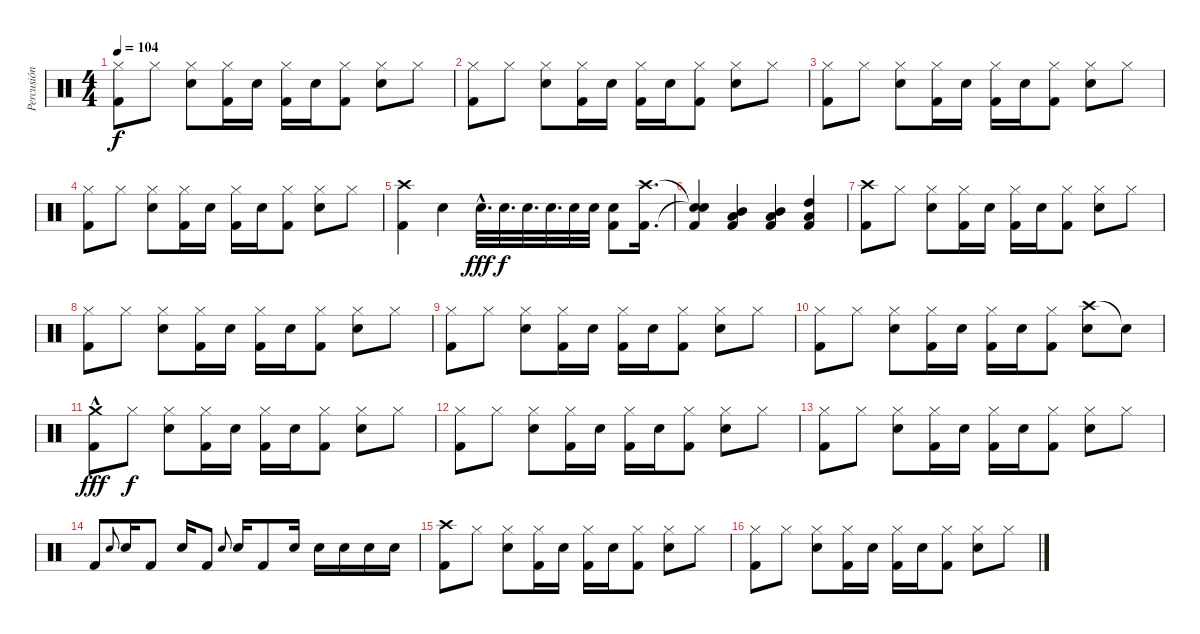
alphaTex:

\track ("Percusión" "Percusión") {instrument percussion}
\staff {score}
\articulation defaults
\ts (4 4)
\tempo 104
\clef neutral
\ks c
("Hi-Hat (closed)" "Kick (hit) 2").8{dy f} "Hi-Hat (closed)".8 ("Hi-Hat (closed)" "Snare (hit) 2").8 ("Hi-Hat (closed)" "Kick (hit) 2").16 "Snare (hit) 2".16 ("Hi-Hat (closed)" "Kick (hit) 2").16 "Snare (hit) 2".16 ("Hi-Hat (closed)" "Kick (hit) 2").8 ("Hi-Hat (closed)" "Snare (hit) 2").8 "Hi-Hat (closed)".8 |
("Hi-Hat (closed)" "Kick (hit) 2").8 "Hi-Hat (closed)".8 ("Hi-Hat (closed)" "Snare (hit) 2").8 ("Hi-Hat (closed)" "Kick (hit) 2").16 "Snare (hit) 2".16 ("Hi-Hat (closed)" "Kick (hit) 2").16 "Snare (hit) 2".16 ("Hi-Hat (closed)" "Kick (hit) 2").8 ("Hi-Hat (closed)" "Snare (hit) 2").8 "Hi-Hat (closed)".8 |
("Hi-Hat (closed)" "Kick (hit) 2").8 "Hi-Hat (closed)".8 ("Hi-Hat (closed)" "Snare (hit) 2").8 ("Hi-Hat (closed)" "Kick (hit) 2").16 "Snare (hit) 2".16 ("Hi-Hat (closed)" "Kick (hit) 2").16 "Snare (hit) 2".16 ("Hi-Hat (closed)" "Kick (hit) 2").8 ("Hi-Hat (closed)" "Snare (hit) 2").8 "Hi-Hat (closed)".8 |
("Hi-Hat (closed)" "Kick (hit) 2").8 "Hi-Hat (closed)".8 ("Hi-Hat (closed)" "Snare (hit) 2").8 ("Hi-Hat (closed)" "Kick (hit) 2").16 "Snare (hit) 2".16 ("Hi-Hat (closed)" "Kick (hit) 2").16 "Snare (hit) 2".16 ("Hi-Hat (closed)" "Kick (hit) 2").8 ("Hi-Hat (closed)" "Snare (hit) 2").8 "Hi-Hat (closed)".8 |
("Crash high (hit)" "Kick (hit) 2").4 "Snare (hit) 2".4 "Snare (hit) 2"{hac}.32{d dy fff} "Snare (hit) 2".32{d dy f} "Snare (hit) 2".32{d} "Snare (hit) 2".32{d} "Snare (hit) 2".32 "Snare (hit) 2".32 ("Snare (hit) 2" "Kick (hit) 2").8 ("Crash high (hit)" "Kick (hit) 2").16{d} |
("Snare (hit)"{t} "Snare (hit)"{t} "Kick (hit) 2").4 ("Mid Tom (hit)" "Low Tom (hit)" "Kick (hit) 2").4 ("Mid Tom (hit)" "Low Tom (hit)" "Kick (hit) 2").4 ("High Tom (hit)" "Low Tom (hit)" "Kick (hit) 2").4 |
("Crash high (hit)" "Kick (hit) 2").8 "Hi-Hat (closed)".8 ("Hi-Hat (closed)" "Snare (hit) 2").8 ("Hi-Hat (closed)" "Kick (hit) 2").16 "Snare (hit) 2".16 ("Hi-Hat (closed)" "Kick (hit) 2").16 "Snare (hit) 2".16 ("Hi-Hat (closed)" "Kick (hit) 2").8 ("Hi-Hat (closed)" "Snare (hit) 2").8 "Hi-Hat (closed)".8 |
("Hi-Hat (closed)" "Kick (hit) 2").8 "Hi-Hat (closed)".8 ("Hi-Hat (closed)" "Snare (hit) 2").8 ("Hi-Hat (closed)" "Kick (hit) 2").16 "Snare (hit) 2".16 ("Hi-Hat (closed)" "Kick (hit) 2").16 "Snare (hit) 2".16 ("Hi-Hat (closed)" "Kick (hit) 2").8 ("Hi-Hat (closed)" "Snare (hit) 2").8 "Hi-Hat (closed)".8 |
("Hi-Hat (closed)" "Kick (hit) 2").8 "Hi-Hat (closed)".8 ("Hi-Hat (closed)" "Snare (hit) 2").8 ("Hi-Hat (closed)" "Kick (hit) 2").16 "Snare (hit) 2".16 ("Hi-Hat (closed)" "Kick (hit) 2").16 "Snare (hit) 2".16 ("Hi-Hat (closed)" "Kick (hit) 2").8 ("Hi-Hat (closed)" "Snare (hit) 2").8 "Hi-Hat (closed)".8 |
("Hi-Hat (closed)" "Kick (hit) 2").8 "Hi-Hat (closed)".8 ("Hi-Hat (closed)" "Snare (hit) 2").8 ("Hi-Hat (closed)" "Kick (hit) 2").16 "Snare (hit) 2".16 ("Hi-Hat (closed)" "Kick (hit) 2").16 "Snare (hit) 2".16 ("Hi-Hat (closed)" "Kick (hit) 2").8 ("Crash high (hit)" "Snare (hit) 2").8 "Snare (hit)"{t}.8 |
("Crash medium (hit)"{hac} "Kick (hit) 2").8{dy fff} "Hi-Hat (closed)".8{dy f} ("Hi-Hat (closed)" "Snare (hit) 2").8 ("Hi-Hat (closed)" "Kick (hit) 2").16 "Snare (hit) 2".16 ("Hi-Hat (closed)" "Kick (hit) 2").16 "Snare (hit) 2".16 ("Hi-Hat (closed)" "Kick (hit) 2").8 ("Hi-Hat (closed)" "Snare (hit) 2").8 "Hi-Hat (closed)".8 |
("Hi-Hat (closed)" "Kick (hit) 2").8 "Hi-Hat (closed)".8 ("Hi-Hat (closed)" "Snare (hit) 2").8 ("Hi-Hat (closed)" "Kick (hit) 2").16 "Snare (hit) 2".16 ("Hi-Hat (closed)" "Kick (hit) 2").16 "Snare (hit) 2".16 ("Hi-Hat (closed)" "Kick (hit) 2").8 ("Hi-Hat (closed)" "Snare (hit) 2").8 "Hi-Hat (closed)".8 |
("Hi-Hat (closed)" "Kick (hit) 2").8 "Hi-Hat (closed)".8 ("Hi-Hat (closed)" "Snare (hit) 2").8 ("Hi-Hat (closed)" "Kick (hit) 2").16 "Snare (hit) 2".16 ("Hi-Hat (closed)" "Kick (hit) 2").16 "Snare (hit) 2".16 ("Hi-Hat (closed)" "Kick (hit) 2").8 ("Hi-Hat (closed)" "Snare (hit) 2").8 "Hi-Hat (closed)".8 |
"Kick (hit) 2".8 "Snare (hit) 2".8{gr onbeat} "Snare (hit) 2".16 "Kick (hit) 2".8 "Snare (hit) 2".16 "Kick (hit) 2".8 "Snare (hit) 2".8{gr onbeat} "Snare (hit) 2".16 "Kick (hit) 2".8 "Snare (hit) 2".16 "Snare (hit) 2".16 "Snare (hit) 2".16 "Snare (hit) 2".16 "Snare (hit) 2".16 |
("Crash high (hit)" "Kick (hit) 2").8 "Hi-Hat (closed)".8 ("Hi-Hat (closed)" "Snare (hit) 2").8 ("Hi-Hat (closed)" "Kick (hit) 2").16 "Snare (hit) 2".16 ("Hi-Hat (closed)" "Kick (hit) 2").16 "Snare (hit) 2".16 ("Hi-Hat (closed)" "Kick (hit) 2").8 ("Hi-Hat (closed)" "Snare (hit) 2").8 "Hi-Hat (closed)".8 |
("Hi-Hat (closed)" "Kick (hit) 2").8 "Hi-Hat (closed)".8 ("Hi-Hat (closed)" "Snare (hit) 2").8 ("Hi-Hat (closed)" "Kick (hit) 2").16 "Snare (hit) 2".16 ("Hi-Hat (closed)" "Kick (hit) 2").16 "Snare (hit) 2".16 ("Hi-Hat (closed)" "Kick (hit) 2").8 ("Hi-Hat (closed)" "Snare (hit) 2").8 "Hi-Hat (closed)".8
